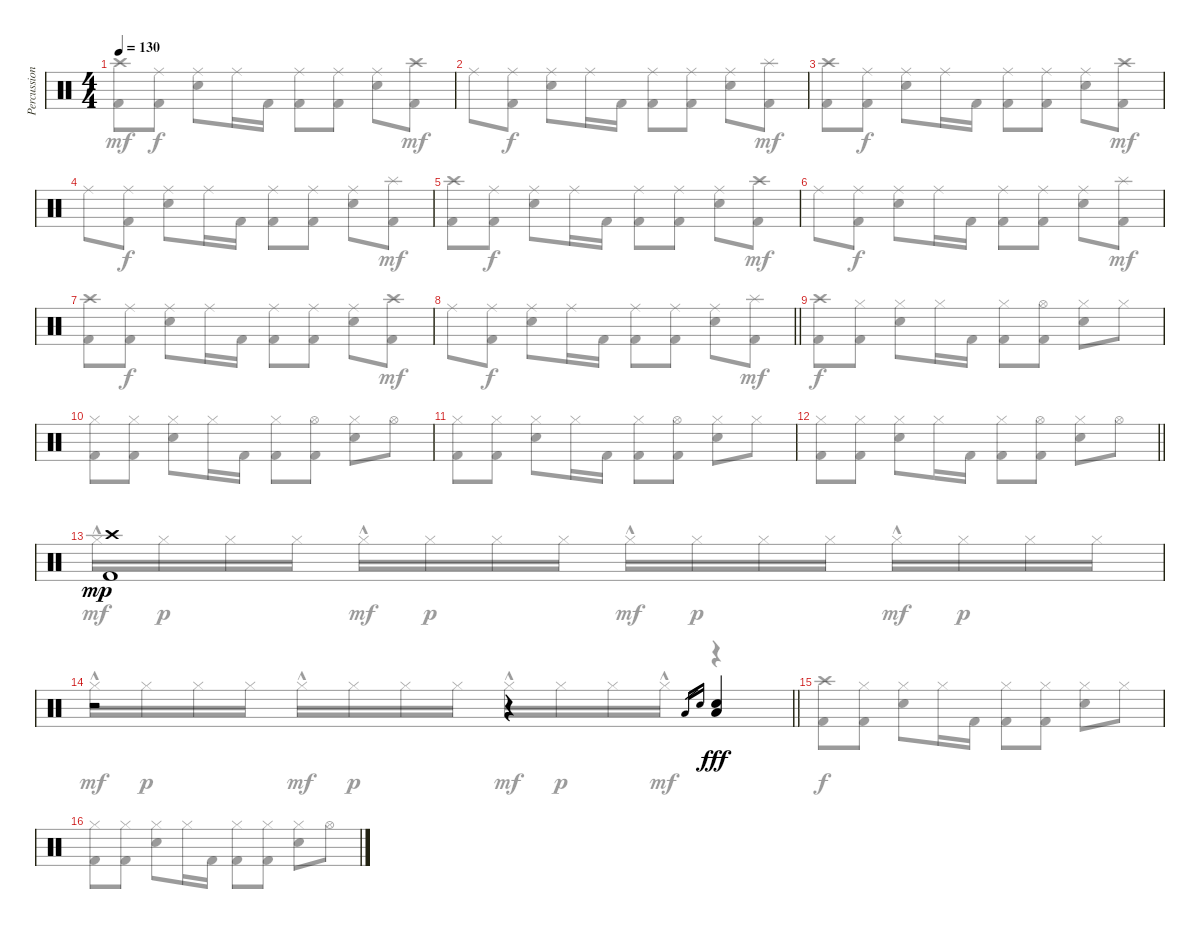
\track ("Percussion" "Percussion") {instrument percussion}
\staff {score}
\articulation defaults
\voice
\ts (4 4)
\tempo 130
\clef neutral
\ks c
|
|
|
|
|
|
|
\barLineRight lightlight
|
|
|
|
\barLineRight lightlight
|
("Crash high (hit)" "Kick (hit) 2").1{dy mp} |
\barLineRight lightlight
r.2 r.4 "Low Floor Tom (hit)".16{gr} "Electric Snare (hit)".16{gr} ("Low Floor Tom (hit)" "Electric Snare (hit)").4{dy fff} |
|
\voice
\clef neutral
\ottava regular
\simile none
\ks c
("Crash high (hit)" "Kick (hit) 2").8{dy mf} ("Ride (middle)" "Kick (hit) 2").8{dy f} ("Ride (middle)" "Electric Snare (hit)").8 "Ride (middle)".16 "Kick (hit) 2".16 ("Ride (middle)" "Kick (hit) 2").8 ("Ride (middle)" "Kick (hit) 2").8 ("Ride (middle)" "Electric Snare (hit)").8 ("Crash high (hit)" "Kick (hit) 2").8{dy mf} |
"Ride (middle)".8 ("Ride (middle)" "Kick (hit) 2").8{dy f} ("Ride (middle)" "Electric Snare (hit)").8 "Ride (middle)".16 "Kick (hit) 2".16 ("Ride (middle)" "Kick (hit) 2").8 ("Ride (middle)" "Kick (hit) 2").8 ("Ride (middle)" "Electric Snare (hit)").8 ("Splash (hit)" "Kick (hit) 2").8{dy mf} |
("Crash high (hit)" "Kick (hit) 2").8 ("Ride (middle)" "Kick (hit) 2").8{dy f} ("Ride (middle)" "Electric Snare (hit)").8 "Ride (middle)".16 "Kick (hit) 2".16 ("Ride (middle)" "Kick (hit) 2").8 ("Ride (middle)" "Kick (hit) 2").8 ("Ride (middle)" "Electric Snare (hit)").8 ("Crash high (hit)" "Kick (hit) 2").8{dy mf} |
"Ride (middle)".8 ("Ride (middle)" "Kick (hit) 2").8{dy f} ("Ride (middle)" "Electric Snare (hit)").8 "Ride (middle)".16 "Kick (hit) 2".16 ("Ride (middle)" "Kick (hit) 2").8 ("Ride (middle)" "Kick (hit) 2").8 ("Ride (middle)" "Electric Snare (hit)").8 ("Splash (hit)" "Kick (hit) 2").8{dy mf} |
("Crash high (hit)" "Kick (hit) 2").8 ("Ride (middle)" "Kick (hit) 2").8{dy f} ("Ride (middle)" "Electric Snare (hit)").8 "Ride (middle)".16 "Kick (hit) 2".16 ("Ride (middle)" "Kick (hit) 2").8 ("Ride (middle)" "Kick (hit) 2").8 ("Ride (middle)" "Electric Snare (hit)").8 ("Crash high (hit)" "Kick (hit) 2").8{dy mf} |
"Ride (middle)".8 ("Ride (middle)" "Kick (hit) 2").8{dy f} ("Ride (middle)" "Electric Snare (hit)").8 "Ride (middle)".16 "Kick (hit) 2".16 ("Ride (middle)" "Kick (hit) 2").8 ("Ride (middle)" "Kick (hit) 2").8 ("Ride (middle)" "Electric Snare (hit)").8 ("Splash (hit)" "Kick (hit) 2").8{dy mf} |
("Crash high (hit)" "Kick (hit) 2").8 ("Ride (middle)" "Kick (hit) 2").8{dy f} ("Ride (middle)" "Electric Snare (hit)").8 "Ride (middle)".16 "Kick (hit) 2".16 ("Ride (middle)" "Kick (hit) 2").8 ("Ride (middle)" "Kick (hit) 2").8 ("Ride (middle)" "Electric Snare (hit)").8 ("Crash high (hit)" "Kick (hit) 2").8{dy mf} |
\barLineRight lightlight "Ride (middle)".8
("Ride (middle)" "Kick (hit) 2").8{dy f} ("Ride (middle)" "Electric Snare (hit)").8 "Ride (middle)".16 "Kick (hit) 2".16 ("Ride (middle)" "Kick (hit) 2").8 ("Ride (middle)" "Kick (hit) 2").8 ("Ride (middle)" "Electric Snare (hit)").8 ("Splash (hit)" "Kick (hit) 2").8{dy mf} |
("Crash high (hit)" "Kick (hit) 2").8{dy f} ("Hi-Hat (closed)" "Kick (hit) 2").8 ("Hi-Hat (closed)" "Electric Snare (hit)").8 "Hi-Hat (closed)".16 "Kick (hit) 2".16 ("Hi-Hat (closed)" "Kick (hit) 2").8 ("Hi-Hat (open)" "Kick (hit) 2").8 ("Hi-Hat (closed)" "Electric Snare (hit)").8 "Hi-Hat (closed)".8 |
("Hi-Hat (closed)" "Kick (hit) 2").8 ("Hi-Hat (closed)" "Kick (hit) 2").8 ("Hi-Hat (closed)" "Electric Snare (hit)").8 "Hi-Hat (closed)".16 "Kick (hit) 2".16 ("Hi-Hat (closed)" "Kick (hit) 2").8 ("Hi-Hat (open)" "Kick (hit) 2").8 ("Hi-Hat (closed)" "Electric Snare (hit)").8 "Hi-Hat (open)".8 |
("Hi-Hat (closed)" "Kick (hit) 2").8 ("Hi-Hat (closed)" "Kick (hit) 2").8 ("Hi-Hat (closed)" "Electric Snare (hit)").8 "Hi-Hat (closed)".16 "Kick (hit) 2".16 ("Hi-Hat (closed)" "Kick (hit) 2").8 ("Hi-Hat (open)" "Kick (hit) 2").8 ("Hi-Hat (closed)" "Electric Snare (hit)").8 "Hi-Hat (closed)".8 |
\barLineRight lightlight
("Hi-Hat (closed)" "Kick (hit) 2").8 ("Hi-Hat (closed)" "Kick (hit) 2").8 ("Hi-Hat (closed)" "Electric Snare (hit)").8 "Hi-Hat (closed)".16 "Kick (hit) 2".16 ("Hi-Hat (closed)" "Kick (hit) 2").8 ("Hi-Hat (open)" "Kick (hit) 2").8 ("Hi-Hat (closed)" "Electric Snare (hit)").8 "Hi-Hat (open)".8 |
"Hi-Hat (closed)"{hac}.16{dy mf} "Hi-Hat (closed)".16{dy p} "Hi-Hat (closed)".16 "Hi-Hat (closed)".16 "Hi-Hat (closed)"{hac}.16{dy mf} "Hi-Hat (closed)".16{dy p} "Hi-Hat (closed)".16 "Hi-Hat (closed)".16 "Hi-Hat (closed)"{hac}.16{dy mf} "Hi-Hat (closed)".16{dy p} "Hi-Hat (closed)".16 "Hi-Hat (closed)".16 "Hi-Hat (closed)"{hac}.16{dy mf} "Hi-Hat (closed)".16{dy p} "Hi-Hat (closed)".16 "Hi-Hat (closed)".16 |
\barLineRight lightlight "Hi-Hat (closed)"{hac}.16{dy mf} "Hi-Hat (closed)".16{dy p} "Hi-Hat (closed)".16 "Hi-Hat (closed)".16 "Hi-Hat (closed)"{hac}.16{dy mf} "Hi-Hat (closed)".16{dy p} "Hi-Hat (closed)".16 "Hi-Hat (closed)".16 "Hi-Hat (closed)"{hac}.16{dy mf} "Hi-Hat (closed)".16{dy p} "Hi-Hat (closed)".16 "Hi-Hat (closed)"{hac}.16{dy mf}
r.4 |
("Crash high (hit)" "Kick (hit) 2").8{dy f} ("Hi-Hat (closed)" "Kick (hit) 2").8 ("Hi-Hat (closed)" "Electric Snare (hit)").8 "Hi-Hat (closed)".16 "Kick (hit) 2".16 ("Hi-Hat (closed)" "Kick (hit) 2").8 ("Hi-Hat (closed)" "Kick (hit) 2").8 ("Hi-Hat (closed)" "Electric Snare (hit)").8 "Hi-Hat (closed)".8 |
("Hi-Hat (closed)" "Kick (hit) 2").8 ("Hi-Hat (closed)" "Kick (hit) 2").8 ("Hi-Hat (closed)" "Electric Snare (hit)").8 "Hi-Hat (closed)".16 "Kick (hit) 2".16 ("Hi-Hat (closed)" "Kick (hit) 2").8 ("Hi-Hat (closed)" "Kick (hit) 2").8 ("Hi-Hat (closed)" "Electric Snare (hit)").8 "Hi-Hat (open)".8
